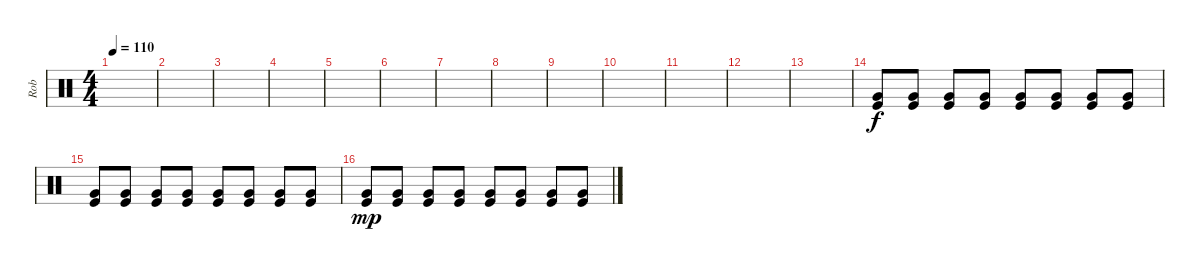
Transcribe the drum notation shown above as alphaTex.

\track ("Rob" "Rob") {instrument percussion}
\staff {score}
\articulation defaults
\ts (4 4)
\tempo 110
\clef neutral
\ks c
|
|
|
|
|
|
|
|
|
|
|
|
|
("Very Low Tom (hit)" "Kick (hit)").8 ("Very Low Tom (hit)" "Kick (hit)").8 ("Very Low Tom (hit)" "Kick (hit)").8 ("Very Low Tom (hit)" "Kick (hit)").8 ("Very Low Tom (hit)" "Kick (hit)").8 ("Very Low Tom (hit)" "Kick (hit)").8 ("Very Low Tom (hit)" "Kick (hit)").8 ("Very Low Tom (hit)" "Kick (hit)").8 |
("Very Low Tom (hit)" "Kick (hit)").8 ("Very Low Tom (hit)" "Kick (hit)").8 ("Very Low Tom (hit)" "Kick (hit)").8 ("Very Low Tom (hit)" "Kick (hit)").8 ("Very Low Tom (hit)" "Kick (hit)").8 ("Very Low Tom (hit)" "Kick (hit)").8 ("Very Low Tom (hit)" "Kick (hit)").8 ("Very Low Tom (hit)" "Kick (hit)").8 |
("Very Low Tom (hit)" "Kick (hit)").8{dy mp} ("Very Low Tom (hit)" "Kick (hit)").8 ("Very Low Tom (hit)" "Kick (hit)").8 ("Very Low Tom (hit)" "Kick (hit)").8 ("Very Low Tom (hit)" "Kick (hit)").8 ("Very Low Tom (hit)" "Kick (hit)").8 ("Very Low Tom (hit)" "Kick (hit)").8 ("Very Low Tom (hit)" "Kick (hit)").8
